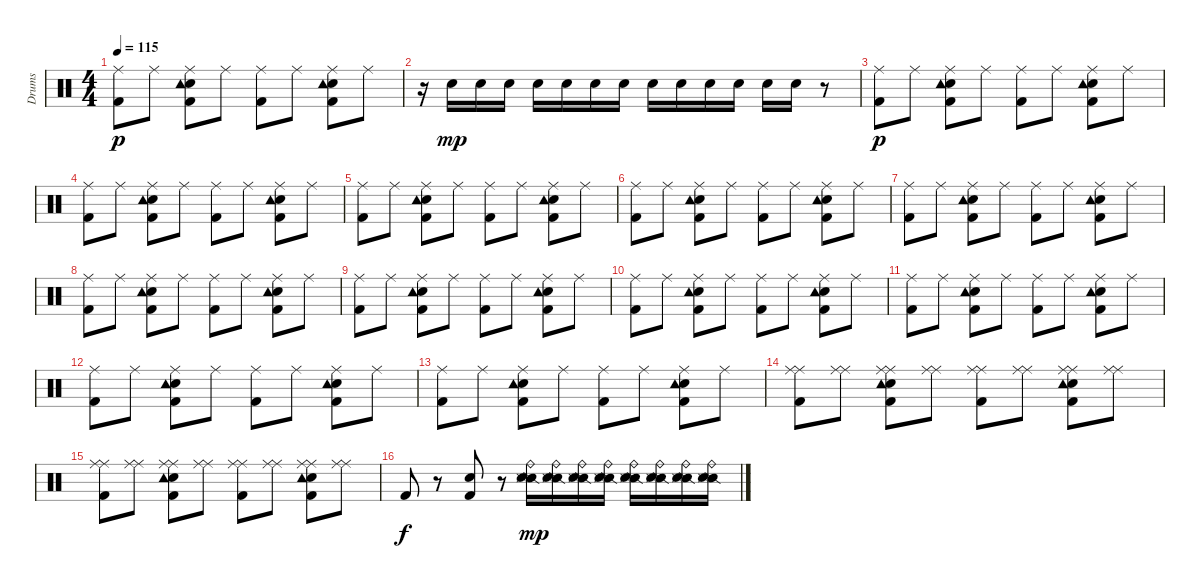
\track ("Drums" "Drums") {instrument percussion}
\staff {score}
\articulation defaults
\ts (4 4)
\tempo 115
\clef neutral
\ks c
("Kick (hit) 2" "Ride (middle)").8{dy p} "Ride (middle)".8 ("Snare (hit) 2" "Kick (hit) 2" "Ride (middle)" "Tambourine (hit)").8 "Ride (middle)".8 ("Kick (hit) 2" "Ride (middle)").8 "Ride (middle)".8 ("Snare (hit) 2" "Kick (hit) 2" "Ride (middle)" "Tambourine (hit)").8 "Ride (middle)".8 |
r.16 "Snare (hit) 2".16{dy mp} "Snare (hit) 2".16 "Snare (hit) 2".16 "Snare (hit) 2".16 "Snare (hit) 2".16 "Snare (hit) 2".16 "Snare (hit) 2".16 "Snare (hit) 2".16 "Snare (hit) 2".16 "Snare (hit) 2".16 "Snare (hit) 2".16 "Snare (hit) 2".16 "Snare (hit) 2".16 r.8 |
("Kick (hit) 2" "Ride (middle)").8{dy p} "Ride (middle)".8 ("Kick (hit) 2" "Snare (hit) 2" "Tambourine (hit)" "Ride (middle)").8 "Ride (middle)".8 ("Kick (hit) 2" "Ride (middle)").8 "Ride (middle)".8 ("Kick (hit) 2" "Snare (hit) 2" "Tambourine (hit)" "Ride (middle)").8 "Ride (middle)".8 |
("Kick (hit) 2" "Ride (middle)").8 "Ride (middle)".8 ("Snare (hit) 2" "Kick (hit) 2" "Tambourine (hit)" "Ride (middle)").8 "Ride (middle)".8 ("Kick (hit) 2" "Ride (middle)").8 "Ride (middle)".8 ("Snare (hit) 2" "Kick (hit) 2" "Tambourine (hit)" "Ride (middle)").8 "Ride (middle)".8 |
("Kick (hit) 2" "Ride (middle)").8 "Ride (middle)".8 ("Kick (hit) 2" "Snare (hit) 2" "Tambourine (hit)" "Ride (middle)").8 "Ride (middle)".8 ("Kick (hit) 2" "Ride (middle)").8 "Ride (middle)".8 ("Kick (hit) 2" "Snare (hit) 2" "Tambourine (hit)" "Ride (middle)").8 "Ride (middle)".8 |
("Kick (hit) 2" "Ride (middle)").8 "Ride (middle)".8 ("Snare (hit) 2" "Kick (hit) 2" "Tambourine (hit)" "Ride (middle)").8 "Ride (middle)".8 ("Kick (hit) 2" "Ride (middle)").8 "Ride (middle)".8 ("Snare (hit) 2" "Kick (hit) 2" "Tambourine (hit)" "Ride (middle)").8 "Ride (middle)".8 |
("Kick (hit) 2" "Ride (middle)").8 "Ride (middle)".8 ("Kick (hit) 2" "Snare (hit) 2" "Tambourine (hit)" "Ride (middle)").8 "Ride (middle)".8 ("Kick (hit) 2" "Ride (middle)").8 "Ride (middle)".8 ("Kick (hit) 2" "Snare (hit) 2" "Tambourine (hit)" "Ride (middle)").8 "Ride (middle)".8 |
("Kick (hit) 2" "Ride (middle)").8 "Ride (middle)".8 ("Snare (hit) 2" "Kick (hit) 2" "Tambourine (hit)" "Ride (middle)").8 "Ride (middle)".8 ("Kick (hit) 2" "Ride (middle)").8 "Ride (middle)".8 ("Snare (hit) 2" "Kick (hit) 2" "Tambourine (hit)" "Ride (middle)").8 "Ride (middle)".8 |
("Kick (hit) 2" "Ride (middle)").8 "Ride (middle)".8 ("Kick (hit) 2" "Snare (hit) 2" "Tambourine (hit)" "Ride (middle)").8 "Ride (middle)".8 ("Kick (hit) 2" "Ride (middle)").8 "Ride (middle)".8 ("Kick (hit) 2" "Snare (hit) 2" "Tambourine (hit)" "Ride (middle)").8 "Ride (middle)".8 |
("Kick (hit) 2" "Ride (middle)").8 "Ride (middle)".8 ("Snare (hit) 2" "Kick (hit) 2" "Tambourine (hit)" "Ride (middle)").8 "Ride (middle)".8 ("Kick (hit) 2" "Ride (middle)").8 "Ride (middle)".8 ("Snare (hit) 2" "Kick (hit) 2" "Tambourine (hit)" "Ride (middle)").8 "Ride (middle)".8 |
("Kick (hit) 2" "Ride (middle)").8 "Ride (middle)".8 ("Kick (hit) 2" "Snare (hit) 2" "Tambourine (hit)" "Ride (middle)").8 "Ride (middle)".8 ("Kick (hit) 2" "Ride (middle)").8 "Ride (middle)".8 ("Kick (hit) 2" "Snare (hit) 2" "Tambourine (hit)" "Ride (middle)").8 "Ride (middle)".8 |
("Kick (hit) 2" "Ride (middle)").8 "Ride (middle)".8 ("Snare (hit) 2" "Kick (hit) 2" "Tambourine (hit)" "Ride (middle)").8 "Ride (middle)".8 ("Kick (hit) 2" "Ride (middle)").8 "Ride (middle)".8 ("Snare (hit) 2" "Kick (hit) 2" "Tambourine (hit)" "Ride (middle)").8 "Ride (middle)".8 |
("Kick (hit) 2" "Ride (middle)").8 "Ride (middle)".8 ("Snare (hit) 2" "Kick (hit) 2" "Tambourine (hit)" "Ride (middle)").8 "Ride (middle)".8 ("Kick (hit) 2" "Ride (middle)").8 "Ride (middle)".8 ("Snare (hit) 2" "Kick (hit) 2" "Tambourine (hit)" "Ride (middle)").8 "Ride (middle)".8 |
("Kick (hit) 2" "Ride (middle)" "Ride (middle)").8 ("Ride (middle)" "Ride (middle)").8 ("Kick (hit) 2" "Snare (hit) 2" "Tambourine (hit)" "Ride (middle)" "Ride (middle)").8 ("Ride (middle)" "Ride (middle)").8 ("Kick (hit) 2" "Ride (middle)" "Ride (middle)").8 ("Ride (middle)" "Ride (middle)").8 ("Kick (hit) 2" "Snare (hit) 2" "Tambourine (hit)" "Ride (middle)" "Ride (middle)").8 ("Ride (middle)" "Ride (middle)").8 |
("Kick (hit) 2" "Ride (middle)" "Ride (middle)").8 ("Ride (middle)" "Ride (middle)").8 ("Kick (hit) 2" "Snare (hit) 2" "Ride (middle)" "Ride (middle)" "Tambourine (hit)").8 ("Ride (middle)" "Ride (middle)").8 ("Kick (hit) 2" "Ride (middle)" "Ride (middle)").8 ("Ride (middle)" "Ride (middle)").8 ("Kick (hit) 2" "Snare (hit) 2" "Ride (middle)" "Ride (middle)" "Tambourine (hit)").8 ("Ride (middle)" "Ride (middle)").8 |
"Kick (hit) 2".8{dy f} r.8 ("Kick (hit) 2" "Snare (hit) 2").8 r.8 ("Snare (side stick) 2" "Snare (hit) 2" "Metronome (hit)" "Ride (bell)").16{dy mp} ("Snare (side stick) 2" "Snare (hit) 2" "Metronome (hit)" "Ride (bell)").16 ("Snare (side stick) 2" "Snare (hit) 2" "Metronome (hit)" "Ride (bell)").16 ("Snare (side stick) 2" "Snare (hit) 2" "Metronome (hit)" "Ride (bell)").16 ("Snare (side stick) 2" "Snare (hit) 2" "Metronome (hit)" "Ride (bell)").16 ("Snare (side stick) 2" "Snare (hit) 2" "Metronome (hit)" "Ride (bell)").16 ("Snare (side stick) 2" "Snare (hit) 2" "Metronome (hit)" "Ride (bell)").16 ("Snare (side stick) 2" "Snare (hit) 2" "Metronome (hit)" "Ride (bell)").16
